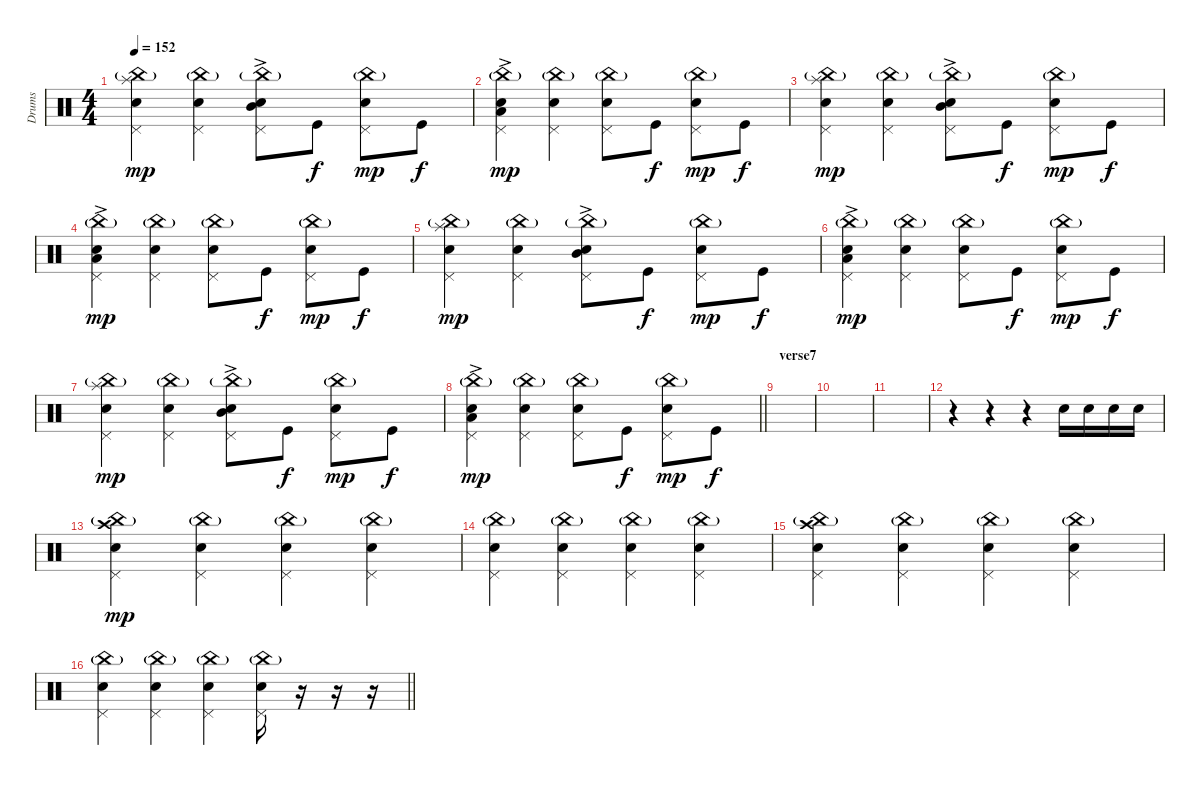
\track ("Drums" "Drums") {instrument percussion}
\staff {score}
\articulation defaults
\ts (4 4)
\tempo 152
\clef neutral
\ks c
("Splash (hit)" "China (hit)"{g} "Electric Snare (hit)" "Pedal Hi-Hat (hit)").4{dy mp} ("China (hit)"{g} "Electric Snare (hit)" "Pedal Hi-Hat (hit)").4 ("Mid Tom (hit)"{ac} "China (hit)"{g} "Electric Snare (hit)" "Pedal Hi-Hat (hit)").8 "Kick (hit)".8{dy f} ("China (hit)"{g} "Electric Snare (hit)" "Pedal Hi-Hat (hit)").8{dy mp} "Kick (hit)".8{dy f} |
("Low Tom (hit)"{ac} "China (hit)"{g} "Electric Snare (hit)" "Pedal Hi-Hat (hit)").4{dy mp} ("China (hit)"{g} "Electric Snare (hit)" "Pedal Hi-Hat (hit)").4 ("China (hit)"{g} "Electric Snare (hit)" "Pedal Hi-Hat (hit)").8 "Kick (hit)".8{dy f} ("China (hit)"{g} "Electric Snare (hit)" "Pedal Hi-Hat (hit)").8{dy mp} "Kick (hit)".8{dy f} |
("Splash (hit)" "China (hit)"{g} "Electric Snare (hit)" "Pedal Hi-Hat (hit)").4{dy mp} ("China (hit)"{g} "Electric Snare (hit)" "Pedal Hi-Hat (hit)").4 ("Mid Tom (hit)"{ac} "China (hit)"{g} "Electric Snare (hit)" "Pedal Hi-Hat (hit)").8 "Kick (hit)".8{dy f} ("China (hit)"{g} "Electric Snare (hit)" "Pedal Hi-Hat (hit)").8{dy mp} "Kick (hit)".8{dy f} |
("Low Tom (hit)"{ac} "China (hit)"{g} "Electric Snare (hit)" "Pedal Hi-Hat (hit)").4{dy mp} ("China (hit)"{g} "Electric Snare (hit)" "Pedal Hi-Hat (hit)").4 ("China (hit)"{g} "Electric Snare (hit)" "Pedal Hi-Hat (hit)").8 "Kick (hit)".8{dy f} ("China (hit)"{g} "Electric Snare (hit)" "Pedal Hi-Hat (hit)").8{dy mp} "Kick (hit)".8{dy f} |
("Splash (hit)" "China (hit)"{g} "Electric Snare (hit)" "Pedal Hi-Hat (hit)").4{dy mp} ("China (hit)"{g} "Electric Snare (hit)" "Pedal Hi-Hat (hit)").4 ("Mid Tom (hit)"{ac} "China (hit)"{g} "Electric Snare (hit)" "Pedal Hi-Hat (hit)").8 "Kick (hit)".8{dy f} ("China (hit)"{g} "Electric Snare (hit)" "Pedal Hi-Hat (hit)").8{dy mp} "Kick (hit)".8{dy f} |
("Low Tom (hit)"{ac} "China (hit)"{g} "Electric Snare (hit)" "Pedal Hi-Hat (hit)").4{dy mp} ("China (hit)"{g} "Electric Snare (hit)" "Pedal Hi-Hat (hit)").4 ("China (hit)"{g} "Electric Snare (hit)" "Pedal Hi-Hat (hit)").8 "Kick (hit)".8{dy f} ("China (hit)"{g} "Electric Snare (hit)" "Pedal Hi-Hat (hit)").8{dy mp} "Kick (hit)".8{dy f} |
("Splash (hit)" "China (hit)"{g} "Electric Snare (hit)" "Pedal Hi-Hat (hit)").4{dy mp} ("China (hit)"{g} "Electric Snare (hit)" "Pedal Hi-Hat (hit)").4 ("Mid Tom (hit)"{ac} "China (hit)"{g} "Electric Snare (hit)" "Pedal Hi-Hat (hit)").8 "Kick (hit)".8{dy f} ("China (hit)"{g} "Electric Snare (hit)" "Pedal Hi-Hat (hit)").8{dy mp} "Kick (hit)".8{dy f} |
\barLineRight lightlight
("Low Tom (hit)"{ac} "China (hit)"{g} "Electric Snare (hit)" "Pedal Hi-Hat (hit)").4{dy mp} ("China (hit)"{g} "Electric Snare (hit)" "Pedal Hi-Hat (hit)").4 ("China (hit)"{g} "Electric Snare (hit)" "Pedal Hi-Hat (hit)").8 "Kick (hit)".8{dy f} ("China (hit)"{g} "Electric Snare (hit)" "Pedal Hi-Hat (hit)").8{dy mp} "Kick (hit)".8{dy f} |
\section ("" "verse7")
|
|
|
r.4 r.4 r.4 "Electric Snare (hit)".16 "Electric Snare (hit)".16 "Electric Snare (hit)".16 "Electric Snare (hit)".16 |
("Crash high (hit)" "China (hit)"{g} "Electric Snare (hit)" "Pedal Hi-Hat (hit)").4{dy mp} ("China (hit)"{g} "Electric Snare (hit)" "Pedal Hi-Hat (hit)").4 ("China (hit)"{g} "Electric Snare (hit)" "Pedal Hi-Hat (hit)").4 ("China (hit)"{g} "Electric Snare (hit)" "Pedal Hi-Hat (hit)").4 |
("China (hit)"{g} "Electric Snare (hit)" "Pedal Hi-Hat (hit)").4 ("China (hit)"{g} "Electric Snare (hit)" "Pedal Hi-Hat (hit)").4 ("China (hit)"{g} "Electric Snare (hit)" "Pedal Hi-Hat (hit)").4 ("China (hit)"{g} "Electric Snare (hit)" "Pedal Hi-Hat (hit)").4 |
("Crash high (hit)" "China (hit)"{g} "Electric Snare (hit)" "Pedal Hi-Hat (hit)").4 ("China (hit)"{g} "Electric Snare (hit)" "Pedal Hi-Hat (hit)").4 ("China (hit)"{g} "Electric Snare (hit)" "Pedal Hi-Hat (hit)").4 ("China (hit)"{g} "Electric Snare (hit)" "Pedal Hi-Hat (hit)").4 |
\barLineRight lightlight
("China (hit)"{g} "Electric Snare (hit)" "Pedal Hi-Hat (hit)").4 ("China (hit)"{g} "Electric Snare (hit)" "Pedal Hi-Hat (hit)").4 ("China (hit)"{g} "Electric Snare (hit)" "Pedal Hi-Hat (hit)").4 ("China (hit)"{g} "Electric Snare (hit)" "Pedal Hi-Hat (hit)").16 r.16 r.16 r.16
